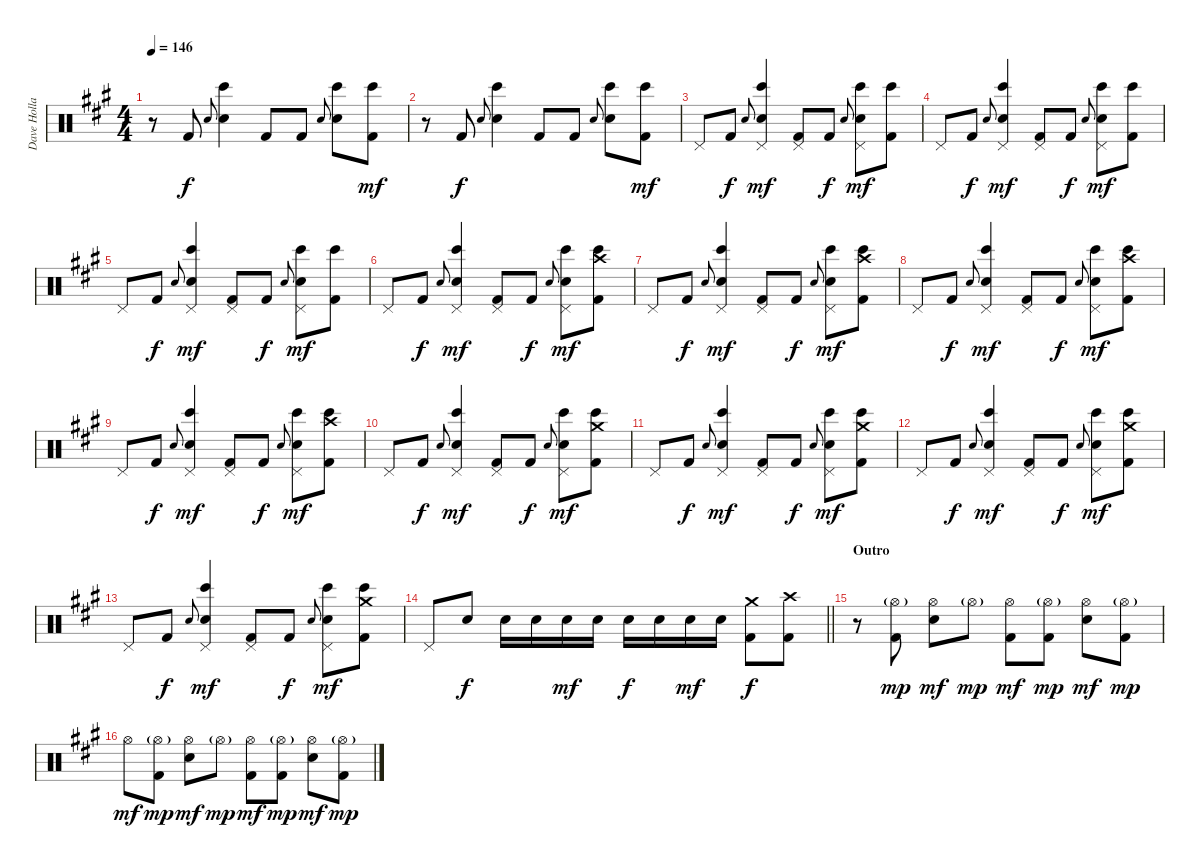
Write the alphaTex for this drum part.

\track ("Dave Holland" "Dave Holla") {instrument percussion}
\staff {score}
\articulation defaults
\ts (4 4)
\tempo 146
\clef neutral
\ks a
r.8{dy mf} "Kick (hit) 2".8{dy f} "Electric Snare (hit)".8{gr onbeat} ("Bongo High (hit)" "Electric Snare (hit)").4 "Kick (hit) 2".8 "Kick (hit) 2".8 "Electric Snare (hit)".8{gr onbeat} ("Bongo High (hit)" "Electric Snare (hit)").8 ("Bongo High (hit)" "Kick (hit) 2").8{dy mf} |
r.8 "Kick (hit) 2".8{dy f} "Electric Snare (hit)".8{gr onbeat} ("Bongo High (hit)" "Electric Snare (hit)").4 "Kick (hit) 2".8 "Kick (hit) 2".8 "Electric Snare (hit)".8{gr onbeat} ("Bongo High (hit)" "Electric Snare (hit)").8 ("Bongo High (hit)" "Kick (hit) 2").8{dy mf} |
"Pedal Hi-Hat (hit)".8 "Kick (hit) 2".8{dy f} "Electric Snare (hit)".8{gr onbeat} ("Bongo High (hit)" "Pedal Hi-Hat (hit)" "Electric Snare (hit)").4{dy mf} ("Pedal Hi-Hat (hit)" "Kick (hit) 2").8 "Kick (hit) 2".8{dy f} "Electric Snare (hit)".8{gr onbeat} ("Bongo High (hit)" "Pedal Hi-Hat (hit)" "Electric Snare (hit)").8{dy mf} ("Bongo High (hit)" "Kick (hit) 2").8 |
"Pedal Hi-Hat (hit)".8 "Kick (hit) 2".8{dy f} "Electric Snare (hit)".8{gr onbeat} ("Bongo High (hit)" "Pedal Hi-Hat (hit)" "Electric Snare (hit)").4{dy mf} ("Pedal Hi-Hat (hit)" "Kick (hit) 2").8 "Kick (hit) 2".8{dy f} "Electric Snare (hit)".8{gr onbeat} ("Bongo High (hit)" "Pedal Hi-Hat (hit)" "Electric Snare (hit)").8{dy mf} ("Bongo High (hit)" "Kick (hit) 2").8 |
"Pedal Hi-Hat (hit)".8 "Kick (hit) 2".8{dy f} "Electric Snare (hit)".8{gr onbeat} ("Bongo High (hit)" "Pedal Hi-Hat (hit)" "Electric Snare (hit)").4{dy mf} ("Pedal Hi-Hat (hit)" "Kick (hit) 2").8 "Kick (hit) 2".8{dy f} "Electric Snare (hit)".8{gr onbeat} ("Bongo High (hit)" "Pedal Hi-Hat (hit)" "Electric Snare (hit)").8{dy mf} ("Bongo High (hit)" "Kick (hit) 2").8 |
"Pedal Hi-Hat (hit)".8 "Kick (hit) 2".8{dy f} "Electric Snare (hit)".8{gr onbeat} ("Bongo High (hit)" "Pedal Hi-Hat (hit)" "Electric Snare (hit)").4{dy mf} ("Pedal Hi-Hat (hit)" "Kick (hit) 2").8 "Kick (hit) 2".8{dy f} "Electric Snare (hit)".8{gr onbeat} ("Bongo High (hit)" "Pedal Hi-Hat (hit)" "Electric Snare (hit)").8{dy mf} ("Bongo High (hit)" "Crash high (hit)" "Kick (hit) 2").8 |
"Pedal Hi-Hat (hit)".8 "Kick (hit) 2".8{dy f} "Electric Snare (hit)".8{gr onbeat} ("Bongo High (hit)" "Pedal Hi-Hat (hit)" "Electric Snare (hit)").4{dy mf} ("Pedal Hi-Hat (hit)" "Kick (hit) 2").8 "Kick (hit) 2".8{dy f} "Electric Snare (hit)".8{gr onbeat} ("Bongo High (hit)" "Pedal Hi-Hat (hit)" "Electric Snare (hit)").8{dy mf} ("Bongo High (hit)" "Crash high (hit)" "Kick (hit) 2").8 |
"Pedal Hi-Hat (hit)".8 "Kick (hit) 2".8{dy f} "Electric Snare (hit)".8{gr onbeat} ("Bongo High (hit)" "Pedal Hi-Hat (hit)" "Electric Snare (hit)").4{dy mf} ("Pedal Hi-Hat (hit)" "Kick (hit) 2").8 "Kick (hit) 2".8{dy f} "Electric Snare (hit)".8{gr onbeat} ("Bongo High (hit)" "Pedal Hi-Hat (hit)" "Electric Snare (hit)").8{dy mf} ("Bongo High (hit)" "Crash high (hit)" "Kick (hit) 2").8 |
"Pedal Hi-Hat (hit)".8 "Kick (hit) 2".8{dy f} "Electric Snare (hit)".8{gr onbeat} ("Bongo High (hit)" "Pedal Hi-Hat (hit)" "Electric Snare (hit)").4{dy mf} ("Pedal Hi-Hat (hit)" "Kick (hit) 2").8 "Kick (hit) 2".8{dy f} "Electric Snare (hit)".8{gr onbeat} ("Bongo High (hit)" "Pedal Hi-Hat (hit)" "Electric Snare (hit)").8{dy mf} ("Bongo High (hit)" "Crash high (hit)" "Kick (hit) 2").8 |
"Pedal Hi-Hat (hit)".8 "Kick (hit) 2".8{dy f} "Electric Snare (hit)".8{gr onbeat} ("Bongo High (hit)" "Pedal Hi-Hat (hit)" "Electric Snare (hit)").4{dy mf} ("Pedal Hi-Hat (hit)" "Kick (hit) 2").8 "Kick (hit) 2".8{dy f} "Electric Snare (hit)".8{gr onbeat} ("Bongo High (hit)" "Pedal Hi-Hat (hit)" "Electric Snare (hit)").8{dy mf} ("Bongo High (hit)" "Crash medium (hit)" "Kick (hit) 2").8 |
"Pedal Hi-Hat (hit)".8 "Kick (hit) 2".8{dy f} "Electric Snare (hit)".8{gr onbeat} ("Bongo High (hit)" "Pedal Hi-Hat (hit)" "Electric Snare (hit)").4{dy mf} ("Pedal Hi-Hat (hit)" "Kick (hit) 2").8 "Kick (hit) 2".8{dy f} "Electric Snare (hit)".8{gr onbeat} ("Bongo High (hit)" "Pedal Hi-Hat (hit)" "Electric Snare (hit)").8{dy mf} ("Bongo High (hit)" "Crash medium (hit)" "Kick (hit) 2").8 |
"Pedal Hi-Hat (hit)".8 "Kick (hit) 2".8{dy f} "Electric Snare (hit)".8{gr onbeat} ("Bongo High (hit)" "Pedal Hi-Hat (hit)" "Electric Snare (hit)").4{dy mf} ("Pedal Hi-Hat (hit)" "Kick (hit) 2").8 "Kick (hit) 2".8{dy f} "Electric Snare (hit)".8{gr onbeat} ("Bongo High (hit)" "Pedal Hi-Hat (hit)" "Electric Snare (hit)").8{dy mf} ("Bongo High (hit)" "Crash medium (hit)" "Kick (hit) 2").8 |
"Pedal Hi-Hat (hit)".8 "Kick (hit) 2".8{dy f} "Electric Snare (hit)".8{gr onbeat} ("Bongo High (hit)" "Pedal Hi-Hat (hit)" "Electric Snare (hit)").4{dy mf} ("Pedal Hi-Hat (hit)" "Kick (hit) 2").8 "Kick (hit) 2".8{dy f} "Electric Snare (hit)".8{gr onbeat} ("Bongo High (hit)" "Pedal Hi-Hat (hit)" "Electric Snare (hit)").8{dy mf} ("Bongo High (hit)" "Crash medium (hit)" "Kick (hit) 2").8 |
\barLineRight lightlight "Pedal Hi-Hat (hit)".8 "Electric Snare (hit)".8{dy f} "Electric Snare (hit)".16 "Electric Snare (hit)".16 "Electric Snare (hit)".16{dy mf} "Electric Snare (hit)".16 "Electric Snare (hit)".16{dy f} "Electric Snare (hit)".16 "Electric Snare (hit)".16{dy mf} "Electric Snare (hit)".16
("Crash medium (hit)" "Kick (hit) 2").8{dy f} ("Crash high (hit)" "Kick (hit) 2").8 |
\section ("" "Outro")
r.8 ("Hi-Hat (open)"{g} "Kick (hit) 2").8{dy mp} ("Hi-Hat (open)" "Electric Snare (hit)").8{dy mf} "Hi-Hat (open)"{g}.8{dy mp} ("Hi-Hat (open)" "Kick (hit) 2").8{dy mf} ("Hi-Hat (open)"{g} "Kick (hit) 2").8{dy mp} ("Hi-Hat (open)" "Electric Snare (hit)").8{dy mf} ("Hi-Hat (open)"{g} "Kick (hit) 2").8{dy mp} |
"Hi-Hat (open)".8{dy mf} ("Hi-Hat (open)"{g} "Kick (hit) 2").8{dy mp} ("Hi-Hat (open)" "Electric Snare (hit)").8{dy mf} "Hi-Hat (open)"{g}.8{dy mp} ("Hi-Hat (open)" "Kick (hit) 2").8{dy mf} ("Hi-Hat (open)"{g} "Kick (hit) 2").8{dy mp} ("Hi-Hat (open)" "Electric Snare (hit)").8{dy mf} ("Hi-Hat (open)"{g} "Kick (hit) 2").8{dy mp}
